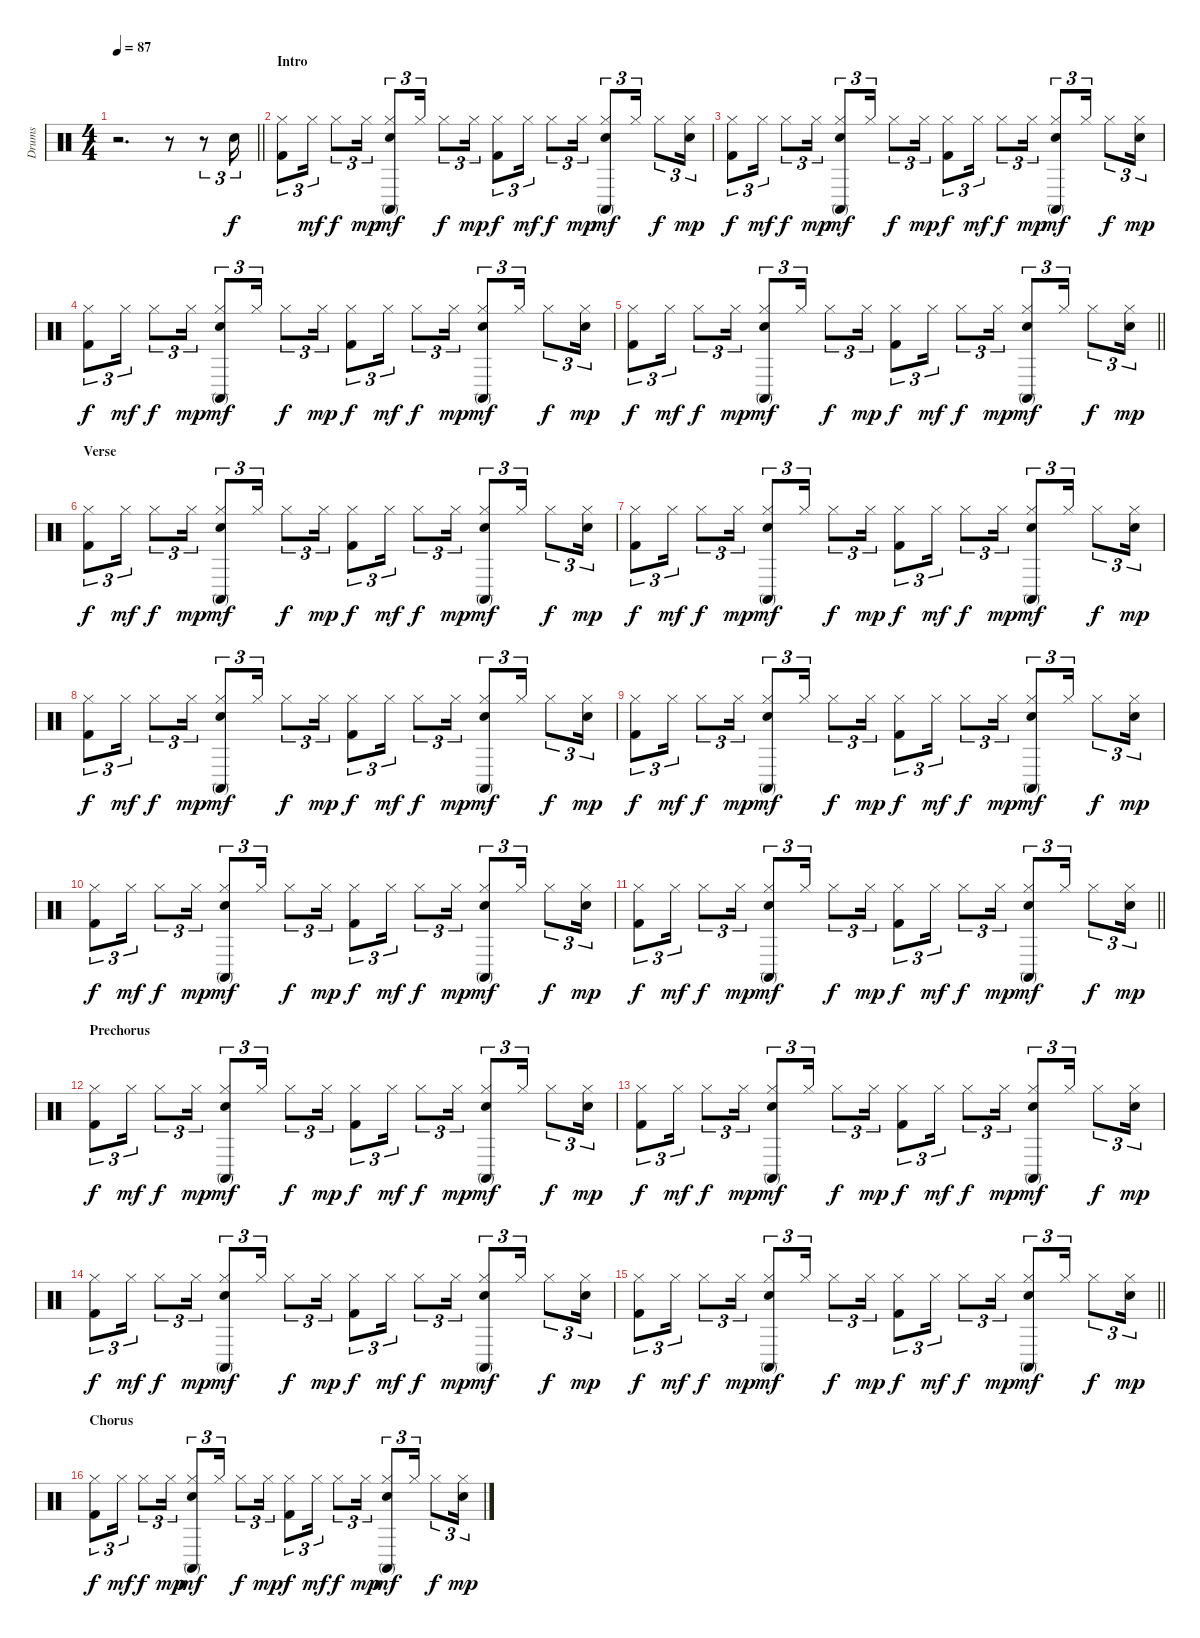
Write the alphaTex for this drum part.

\track ("Drums" "Drums") {instrument percussion}
\staff {score}
\articulation defaults
\ts (4 4)
\tempo 87
\clef neutral
\barLineRight lightlight
\ks c
r.2{d dy f} r.8 r.8{tu (3 2)} "Electric Snare (hit)".16{tu (3 2)} |
\section ("" "Intro")
("Hi-Hat (closed)" "Kick (hit) 2").8{tu (3 2)} "Hi-Hat (closed)".16{tu (3 2) dy mf} "Hi-Hat (closed)".8{tu (3 2) dy f} "Hi-Hat (closed)".16{tu (3 2) dy mp} ("Conga high (mute)" "Hi-Hat (closed)" "Electric Snare (hit)").8{tu (3 2) dy mf} "Hi-Hat (closed)".16{tu (3 2)} "Hi-Hat (closed)".8{tu (3 2) dy f} "Hi-Hat (closed)".16{tu (3 2) dy mp} ("Hi-Hat (closed)" "Kick (hit) 2").8{tu (3 2) dy f} "Hi-Hat (closed)".16{tu (3 2) dy mf} "Hi-Hat (closed)".8{tu (3 2) dy f} "Hi-Hat (closed)".16{tu (3 2) dy mp} ("Conga high (mute)" "Hi-Hat (closed)" "Electric Snare (hit)").8{tu (3 2) dy mf} "Hi-Hat (closed)".16{tu (3 2)} "Hi-Hat (closed)".8{tu (3 2) dy f} ("Hi-Hat (closed)" "Electric Snare (hit)").16{tu (3 2) dy mp} |
("Hi-Hat (closed)" "Kick (hit) 2").8{tu (3 2) dy f} "Hi-Hat (closed)".16{tu (3 2) dy mf} "Hi-Hat (closed)".8{tu (3 2) dy f} "Hi-Hat (closed)".16{tu (3 2) dy mp} ("Conga high (mute)" "Hi-Hat (closed)" "Electric Snare (hit)").8{tu (3 2) dy mf} "Hi-Hat (closed)".16{tu (3 2)} "Hi-Hat (closed)".8{tu (3 2) dy f} "Hi-Hat (closed)".16{tu (3 2) dy mp} ("Hi-Hat (closed)" "Kick (hit) 2").8{tu (3 2) dy f} "Hi-Hat (closed)".16{tu (3 2) dy mf} "Hi-Hat (closed)".8{tu (3 2) dy f} "Hi-Hat (closed)".16{tu (3 2) dy mp} ("Conga high (mute)" "Hi-Hat (closed)" "Electric Snare (hit)").8{tu (3 2) dy mf} "Hi-Hat (closed)".16{tu (3 2)} "Hi-Hat (closed)".8{tu (3 2) dy f} ("Hi-Hat (closed)" "Electric Snare (hit)").16{tu (3 2) dy mp} |
("Hi-Hat (closed)" "Kick (hit) 2").8{tu (3 2) dy f} "Hi-Hat (closed)".16{tu (3 2) dy mf} "Hi-Hat (closed)".8{tu (3 2) dy f} "Hi-Hat (closed)".16{tu (3 2) dy mp} ("Conga high (mute)" "Hi-Hat (closed)" "Electric Snare (hit)").8{tu (3 2) dy mf} "Hi-Hat (closed)".16{tu (3 2)} "Hi-Hat (closed)".8{tu (3 2) dy f} "Hi-Hat (closed)".16{tu (3 2) dy mp} ("Hi-Hat (closed)" "Kick (hit) 2").8{tu (3 2) dy f} "Hi-Hat (closed)".16{tu (3 2) dy mf} "Hi-Hat (closed)".8{tu (3 2) dy f} "Hi-Hat (closed)".16{tu (3 2) dy mp} ("Conga high (mute)" "Hi-Hat (closed)" "Electric Snare (hit)").8{tu (3 2) dy mf} "Hi-Hat (closed)".16{tu (3 2)} "Hi-Hat (closed)".8{tu (3 2) dy f} ("Hi-Hat (closed)" "Electric Snare (hit)").16{tu (3 2) dy mp} |
\barLineRight lightlight
("Hi-Hat (closed)" "Kick (hit) 2").8{tu (3 2) dy f} "Hi-Hat (closed)".16{tu (3 2) dy mf} "Hi-Hat (closed)".8{tu (3 2) dy f} "Hi-Hat (closed)".16{tu (3 2) dy mp} ("Conga high (mute)" "Hi-Hat (closed)" "Electric Snare (hit)").8{tu (3 2) dy mf} "Hi-Hat (closed)".16{tu (3 2)} "Hi-Hat (closed)".8{tu (3 2) dy f} "Hi-Hat (closed)".16{tu (3 2) dy mp} ("Hi-Hat (closed)" "Kick (hit) 2").8{tu (3 2) dy f} "Hi-Hat (closed)".16{tu (3 2) dy mf} "Hi-Hat (closed)".8{tu (3 2) dy f} "Hi-Hat (closed)".16{tu (3 2) dy mp} ("Conga high (mute)" "Hi-Hat (closed)" "Electric Snare (hit)").8{tu (3 2) dy mf} "Hi-Hat (closed)".16{tu (3 2)} "Hi-Hat (closed)".8{tu (3 2) dy f} ("Hi-Hat (closed)" "Electric Snare (hit)").16{tu (3 2) dy mp} |
\section ("" "Verse")
("Hi-Hat (closed)" "Kick (hit) 2").8{tu (3 2) dy f} "Hi-Hat (closed)".16{tu (3 2) dy mf} "Hi-Hat (closed)".8{tu (3 2) dy f} "Hi-Hat (closed)".16{tu (3 2) dy mp} ("Conga high (mute)" "Hi-Hat (closed)" "Electric Snare (hit)").8{tu (3 2) dy mf} "Hi-Hat (closed)".16{tu (3 2)} "Hi-Hat (closed)".8{tu (3 2) dy f} "Hi-Hat (closed)".16{tu (3 2) dy mp} ("Hi-Hat (closed)" "Kick (hit) 2").8{tu (3 2) dy f} "Hi-Hat (closed)".16{tu (3 2) dy mf} "Hi-Hat (closed)".8{tu (3 2) dy f} "Hi-Hat (closed)".16{tu (3 2) dy mp} ("Conga high (mute)" "Hi-Hat (closed)" "Electric Snare (hit)").8{tu (3 2) dy mf} "Hi-Hat (closed)".16{tu (3 2)} "Hi-Hat (closed)".8{tu (3 2) dy f} ("Hi-Hat (closed)" "Electric Snare (hit)").16{tu (3 2) dy mp} |
("Hi-Hat (closed)" "Kick (hit) 2").8{tu (3 2) dy f} "Hi-Hat (closed)".16{tu (3 2) dy mf} "Hi-Hat (closed)".8{tu (3 2) dy f} "Hi-Hat (closed)".16{tu (3 2) dy mp} ("Conga high (mute)" "Hi-Hat (closed)" "Electric Snare (hit)").8{tu (3 2) dy mf} "Hi-Hat (closed)".16{tu (3 2)} "Hi-Hat (closed)".8{tu (3 2) dy f} "Hi-Hat (closed)".16{tu (3 2) dy mp} ("Hi-Hat (closed)" "Kick (hit) 2").8{tu (3 2) dy f} "Hi-Hat (closed)".16{tu (3 2) dy mf} "Hi-Hat (closed)".8{tu (3 2) dy f} "Hi-Hat (closed)".16{tu (3 2) dy mp} ("Conga high (mute)" "Hi-Hat (closed)" "Electric Snare (hit)").8{tu (3 2) dy mf} "Hi-Hat (closed)".16{tu (3 2)} "Hi-Hat (closed)".8{tu (3 2) dy f} ("Hi-Hat (closed)" "Electric Snare (hit)").16{tu (3 2) dy mp} |
("Hi-Hat (closed)" "Kick (hit) 2").8{tu (3 2) dy f} "Hi-Hat (closed)".16{tu (3 2) dy mf} "Hi-Hat (closed)".8{tu (3 2) dy f} "Hi-Hat (closed)".16{tu (3 2) dy mp} ("Conga high (mute)" "Hi-Hat (closed)" "Electric Snare (hit)").8{tu (3 2) dy mf} "Hi-Hat (closed)".16{tu (3 2)} "Hi-Hat (closed)".8{tu (3 2) dy f} "Hi-Hat (closed)".16{tu (3 2) dy mp} ("Hi-Hat (closed)" "Kick (hit) 2").8{tu (3 2) dy f} "Hi-Hat (closed)".16{tu (3 2) dy mf} "Hi-Hat (closed)".8{tu (3 2) dy f} "Hi-Hat (closed)".16{tu (3 2) dy mp} ("Conga high (mute)" "Hi-Hat (closed)" "Electric Snare (hit)").8{tu (3 2) dy mf} "Hi-Hat (closed)".16{tu (3 2)} "Hi-Hat (closed)".8{tu (3 2) dy f} ("Hi-Hat (closed)" "Electric Snare (hit)").16{tu (3 2) dy mp} |
("Hi-Hat (closed)" "Kick (hit) 2").8{tu (3 2) dy f} "Hi-Hat (closed)".16{tu (3 2) dy mf} "Hi-Hat (closed)".8{tu (3 2) dy f} "Hi-Hat (closed)".16{tu (3 2) dy mp} ("Conga high (mute)" "Hi-Hat (closed)" "Electric Snare (hit)").8{tu (3 2) dy mf} "Hi-Hat (closed)".16{tu (3 2)} "Hi-Hat (closed)".8{tu (3 2) dy f} "Hi-Hat (closed)".16{tu (3 2) dy mp} ("Hi-Hat (closed)" "Kick (hit) 2").8{tu (3 2) dy f} "Hi-Hat (closed)".16{tu (3 2) dy mf} "Hi-Hat (closed)".8{tu (3 2) dy f} "Hi-Hat (closed)".16{tu (3 2) dy mp} ("Conga high (mute)" "Hi-Hat (closed)" "Electric Snare (hit)").8{tu (3 2) dy mf} "Hi-Hat (closed)".16{tu (3 2)} "Hi-Hat (closed)".8{tu (3 2) dy f} ("Hi-Hat (closed)" "Electric Snare (hit)").16{tu (3 2) dy mp} |
("Hi-Hat (closed)" "Kick (hit) 2").8{tu (3 2) dy f} "Hi-Hat (closed)".16{tu (3 2) dy mf} "Hi-Hat (closed)".8{tu (3 2) dy f} "Hi-Hat (closed)".16{tu (3 2) dy mp} ("Conga high (mute)" "Hi-Hat (closed)" "Electric Snare (hit)").8{tu (3 2) dy mf} "Hi-Hat (closed)".16{tu (3 2)} "Hi-Hat (closed)".8{tu (3 2) dy f} "Hi-Hat (closed)".16{tu (3 2) dy mp} ("Hi-Hat (closed)" "Kick (hit) 2").8{tu (3 2) dy f} "Hi-Hat (closed)".16{tu (3 2) dy mf} "Hi-Hat (closed)".8{tu (3 2) dy f} "Hi-Hat (closed)".16{tu (3 2) dy mp} ("Conga high (mute)" "Hi-Hat (closed)" "Electric Snare (hit)").8{tu (3 2) dy mf} "Hi-Hat (closed)".16{tu (3 2)} "Hi-Hat (closed)".8{tu (3 2) dy f} ("Hi-Hat (closed)" "Electric Snare (hit)").16{tu (3 2) dy mp} |
\barLineRight lightlight
("Hi-Hat (closed)" "Kick (hit) 2").8{tu (3 2) dy f} "Hi-Hat (closed)".16{tu (3 2) dy mf} "Hi-Hat (closed)".8{tu (3 2) dy f} "Hi-Hat (closed)".16{tu (3 2) dy mp} ("Conga high (mute)" "Hi-Hat (closed)" "Electric Snare (hit)").8{tu (3 2) dy mf} "Hi-Hat (closed)".16{tu (3 2)} "Hi-Hat (closed)".8{tu (3 2) dy f} "Hi-Hat (closed)".16{tu (3 2) dy mp} ("Hi-Hat (closed)" "Kick (hit) 2").8{tu (3 2) dy f} "Hi-Hat (closed)".16{tu (3 2) dy mf} "Hi-Hat (closed)".8{tu (3 2) dy f} "Hi-Hat (closed)".16{tu (3 2) dy mp} ("Conga high (mute)" "Hi-Hat (closed)" "Electric Snare (hit)").8{tu (3 2) dy mf} "Hi-Hat (closed)".16{tu (3 2)} "Hi-Hat (closed)".8{tu (3 2) dy f} ("Hi-Hat (closed)" "Electric Snare (hit)").16{tu (3 2) dy mp} |
\section ("" "Prechorus")
("Hi-Hat (closed)" "Kick (hit) 2").8{tu (3 2) dy f} "Hi-Hat (closed)".16{tu (3 2) dy mf} "Hi-Hat (closed)".8{tu (3 2) dy f} "Hi-Hat (closed)".16{tu (3 2) dy mp} ("Conga high (mute)" "Hi-Hat (closed)" "Electric Snare (hit)").8{tu (3 2) dy mf} "Hi-Hat (closed)".16{tu (3 2)} "Hi-Hat (closed)".8{tu (3 2) dy f} "Hi-Hat (closed)".16{tu (3 2) dy mp} ("Hi-Hat (closed)" "Kick (hit) 2").8{tu (3 2) dy f} "Hi-Hat (closed)".16{tu (3 2) dy mf} "Hi-Hat (closed)".8{tu (3 2) dy f} "Hi-Hat (closed)".16{tu (3 2) dy mp} ("Conga high (mute)" "Hi-Hat (closed)" "Electric Snare (hit)").8{tu (3 2) dy mf} "Hi-Hat (closed)".16{tu (3 2)} "Hi-Hat (closed)".8{tu (3 2) dy f} ("Hi-Hat (closed)" "Electric Snare (hit)").16{tu (3 2) dy mp} |
("Hi-Hat (closed)" "Kick (hit) 2").8{tu (3 2) dy f} "Hi-Hat (closed)".16{tu (3 2) dy mf} "Hi-Hat (closed)".8{tu (3 2) dy f} "Hi-Hat (closed)".16{tu (3 2) dy mp} ("Conga high (mute)" "Hi-Hat (closed)" "Electric Snare (hit)").8{tu (3 2) dy mf} "Hi-Hat (closed)".16{tu (3 2)} "Hi-Hat (closed)".8{tu (3 2) dy f} "Hi-Hat (closed)".16{tu (3 2) dy mp} ("Hi-Hat (closed)" "Kick (hit) 2").8{tu (3 2) dy f} "Hi-Hat (closed)".16{tu (3 2) dy mf} "Hi-Hat (closed)".8{tu (3 2) dy f} "Hi-Hat (closed)".16{tu (3 2) dy mp} ("Conga high (mute)" "Hi-Hat (closed)" "Electric Snare (hit)").8{tu (3 2) dy mf} "Hi-Hat (closed)".16{tu (3 2)} "Hi-Hat (closed)".8{tu (3 2) dy f} ("Hi-Hat (closed)" "Electric Snare (hit)").16{tu (3 2) dy mp} |
("Hi-Hat (closed)" "Kick (hit) 2").8{tu (3 2) dy f} "Hi-Hat (closed)".16{tu (3 2) dy mf} "Hi-Hat (closed)".8{tu (3 2) dy f} "Hi-Hat (closed)".16{tu (3 2) dy mp} ("Conga high (mute)" "Hi-Hat (closed)" "Electric Snare (hit)").8{tu (3 2) dy mf} "Hi-Hat (closed)".16{tu (3 2)} "Hi-Hat (closed)".8{tu (3 2) dy f} "Hi-Hat (closed)".16{tu (3 2) dy mp} ("Hi-Hat (closed)" "Kick (hit) 2").8{tu (3 2) dy f} "Hi-Hat (closed)".16{tu (3 2) dy mf} "Hi-Hat (closed)".8{tu (3 2) dy f} "Hi-Hat (closed)".16{tu (3 2) dy mp} ("Conga high (mute)" "Hi-Hat (closed)" "Electric Snare (hit)").8{tu (3 2) dy mf} "Hi-Hat (closed)".16{tu (3 2)} "Hi-Hat (closed)".8{tu (3 2) dy f} ("Hi-Hat (closed)" "Electric Snare (hit)").16{tu (3 2) dy mp} |
\barLineRight lightlight
("Hi-Hat (closed)" "Kick (hit) 2").8{tu (3 2) dy f} "Hi-Hat (closed)".16{tu (3 2) dy mf} "Hi-Hat (closed)".8{tu (3 2) dy f} "Hi-Hat (closed)".16{tu (3 2) dy mp} ("Conga high (mute)" "Hi-Hat (closed)" "Electric Snare (hit)").8{tu (3 2) dy mf} "Hi-Hat (closed)".16{tu (3 2)} "Hi-Hat (closed)".8{tu (3 2) dy f} "Hi-Hat (closed)".16{tu (3 2) dy mp} ("Hi-Hat (closed)" "Kick (hit) 2").8{tu (3 2) dy f} "Hi-Hat (closed)".16{tu (3 2) dy mf} "Hi-Hat (closed)".8{tu (3 2) dy f} "Hi-Hat (closed)".16{tu (3 2) dy mp} ("Conga high (mute)" "Hi-Hat (closed)" "Electric Snare (hit)").8{tu (3 2) dy mf} "Hi-Hat (closed)".16{tu (3 2)} "Hi-Hat (closed)".8{tu (3 2) dy f} ("Hi-Hat (closed)" "Electric Snare (hit)").16{tu (3 2) dy mp} |
\section ("" "Chorus")
("Hi-Hat (closed)" "Kick (hit) 2").8{tu (3 2) dy f} "Hi-Hat (closed)".16{tu (3 2) dy mf} "Hi-Hat (closed)".8{tu (3 2) dy f} "Hi-Hat (closed)".16{tu (3 2) dy mp} ("Conga high (mute)" "Hi-Hat (closed)" "Electric Snare (hit)").8{tu (3 2) dy mf} "Hi-Hat (closed)".16{tu (3 2)} "Hi-Hat (closed)".8{tu (3 2) dy f} "Hi-Hat (closed)".16{tu (3 2) dy mp} ("Hi-Hat (closed)" "Kick (hit) 2").8{tu (3 2) dy f} "Hi-Hat (closed)".16{tu (3 2) dy mf} "Hi-Hat (closed)".8{tu (3 2) dy f} "Hi-Hat (closed)".16{tu (3 2) dy mp} ("Conga high (mute)" "Hi-Hat (closed)" "Electric Snare (hit)").8{tu (3 2) dy mf} "Hi-Hat (closed)".16{tu (3 2)} "Hi-Hat (closed)".8{tu (3 2) dy f} ("Hi-Hat (closed)" "Electric Snare (hit)").16{tu (3 2) dy mp}
